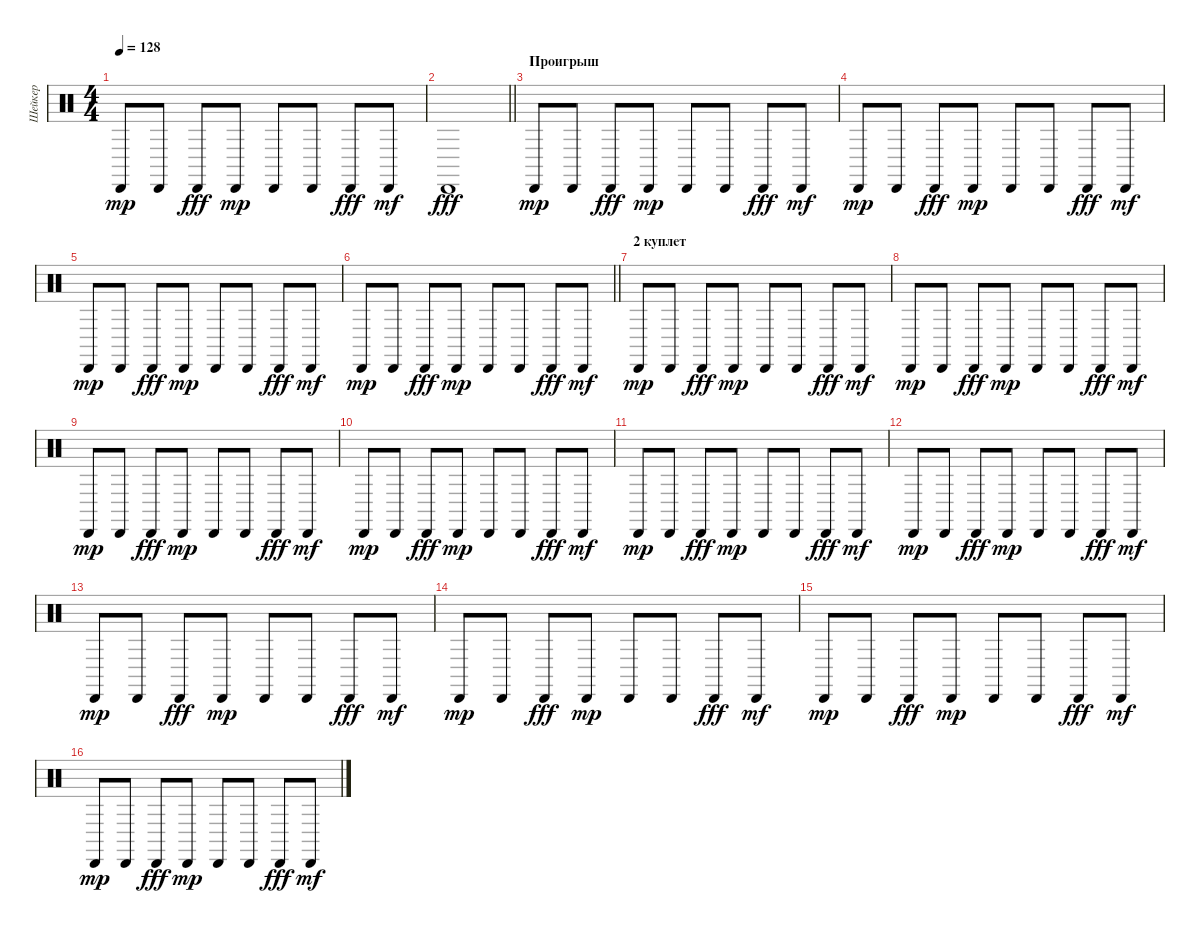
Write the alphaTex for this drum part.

\track ("Шейкер" "Шейкер") {instrument percussion}
\staff {score}
\articulation defaults
\ts (4 4)
\tempo 128
\clef neutral
\ks c "Cabasa (hit)".8{dy mp} "Cabasa (hit)".8 "Cabasa (hit)".8{dy fff} "Cabasa (hit)".8{dy mp} "Cabasa (hit)".8 "Cabasa (hit)".8 "Cabasa (hit)".8{dy fff} "Cabasa (hit)".8{dy mf}
|
\barLineRight lightlight "Cabasa (hit)".1{dy fff}
|
\section ("" "Проигрыш")
"Cabasa (hit)".8{dy mp} "Cabasa (hit)".8 "Cabasa (hit)".8{dy fff} "Cabasa (hit)".8{dy mp} "Cabasa (hit)".8 "Cabasa (hit)".8 "Cabasa (hit)".8{dy fff} "Cabasa (hit)".8{dy mf} |
"Cabasa (hit)".8{dy mp} "Cabasa (hit)".8 "Cabasa (hit)".8{dy fff} "Cabasa (hit)".8{dy mp} "Cabasa (hit)".8 "Cabasa (hit)".8 "Cabasa (hit)".8{dy fff} "Cabasa (hit)".8{dy mf} |
"Cabasa (hit)".8{dy mp} "Cabasa (hit)".8 "Cabasa (hit)".8{dy fff} "Cabasa (hit)".8{dy mp} "Cabasa (hit)".8 "Cabasa (hit)".8 "Cabasa (hit)".8{dy fff} "Cabasa (hit)".8{dy mf} |
\barLineRight lightlight "Cabasa (hit)".8{dy mp} "Cabasa (hit)".8 "Cabasa (hit)".8{dy fff} "Cabasa (hit)".8{dy mp} "Cabasa (hit)".8 "Cabasa (hit)".8 "Cabasa (hit)".8{dy fff} "Cabasa (hit)".8{dy mf}
|
\section ("" "2 куплет")
"Cabasa (hit)".8{dy mp} "Cabasa (hit)".8 "Cabasa (hit)".8{dy fff} "Cabasa (hit)".8{dy mp} "Cabasa (hit)".8 "Cabasa (hit)".8 "Cabasa (hit)".8{dy fff} "Cabasa (hit)".8{dy mf} |
"Cabasa (hit)".8{dy mp} "Cabasa (hit)".8 "Cabasa (hit)".8{dy fff} "Cabasa (hit)".8{dy mp} "Cabasa (hit)".8 "Cabasa (hit)".8 "Cabasa (hit)".8{dy fff} "Cabasa (hit)".8{dy mf} |
"Cabasa (hit)".8{dy mp} "Cabasa (hit)".8 "Cabasa (hit)".8{dy fff} "Cabasa (hit)".8{dy mp} "Cabasa (hit)".8 "Cabasa (hit)".8 "Cabasa (hit)".8{dy fff} "Cabasa (hit)".8{dy mf} |
"Cabasa (hit)".8{dy mp} "Cabasa (hit)".8 "Cabasa (hit)".8{dy fff} "Cabasa (hit)".8{dy mp} "Cabasa (hit)".8 "Cabasa (hit)".8 "Cabasa (hit)".8{dy fff} "Cabasa (hit)".8{dy mf} |
"Cabasa (hit)".8{dy mp} "Cabasa (hit)".8 "Cabasa (hit)".8{dy fff} "Cabasa (hit)".8{dy mp} "Cabasa (hit)".8 "Cabasa (hit)".8 "Cabasa (hit)".8{dy fff} "Cabasa (hit)".8{dy mf} |
"Cabasa (hit)".8{dy mp} "Cabasa (hit)".8 "Cabasa (hit)".8{dy fff} "Cabasa (hit)".8{dy mp} "Cabasa (hit)".8 "Cabasa (hit)".8 "Cabasa (hit)".8{dy fff} "Cabasa (hit)".8{dy mf} |
"Cabasa (hit)".8{dy mp} "Cabasa (hit)".8 "Cabasa (hit)".8{dy fff} "Cabasa (hit)".8{dy mp} "Cabasa (hit)".8 "Cabasa (hit)".8 "Cabasa (hit)".8{dy fff} "Cabasa (hit)".8{dy mf} |
"Cabasa (hit)".8{dy mp} "Cabasa (hit)".8 "Cabasa (hit)".8{dy fff} "Cabasa (hit)".8{dy mp} "Cabasa (hit)".8 "Cabasa (hit)".8 "Cabasa (hit)".8{dy fff} "Cabasa (hit)".8{dy mf} |
"Cabasa (hit)".8{dy mp} "Cabasa (hit)".8 "Cabasa (hit)".8{dy fff} "Cabasa (hit)".8{dy mp} "Cabasa (hit)".8 "Cabasa (hit)".8 "Cabasa (hit)".8{dy fff} "Cabasa (hit)".8{dy mf} |
"Cabasa (hit)".8{dy mp} "Cabasa (hit)".8 "Cabasa (hit)".8{dy fff} "Cabasa (hit)".8{dy mp} "Cabasa (hit)".8 "Cabasa (hit)".8 "Cabasa (hit)".8{dy fff} "Cabasa (hit)".8{dy mf}
